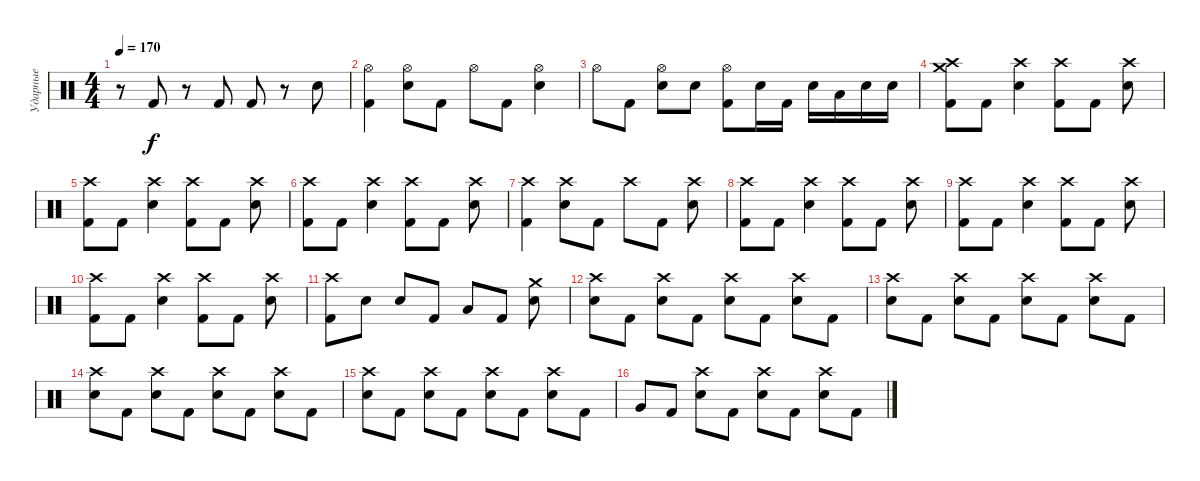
\track ("Ударные" "Ударные") {instrument percussion}
\staff {score}
\articulation defaults
\ts (4 4)
\tempo 170
\clef neutral
\ks c
r.8{dy f} "Kick (hit) 2".8 r.8 "Kick (hit) 2".8 "Kick (hit) 2".8 r.8 "Snare (hit) 2".8 |
("Hi-Hat (open)" "Kick (hit) 2").4 ("Hi-Hat (open)" "Snare (hit) 2").8 "Kick (hit) 2".8 "Hi-Hat (open)".8 "Kick (hit) 2".8 ("Hi-Hat (open)" "Snare (hit) 2").4 |
"Hi-Hat (open)".8 "Kick (hit) 2".8 ("Hi-Hat (open)" "Snare (hit) 2").8 "Snare (hit) 2".8 ("Hi-Hat (open)" "Kick (hit) 2").8 "Snare (hit) 2".16 "Kick (hit) 2".16 "Snare (hit) 2".16 "Low Tom (hit)".16 "Snare (hit) 2".16 "Snare (hit) 2".16 |
("Crash medium (hit)" "Crash high (hit)" "Kick (hit) 2").8 "Kick (hit) 2".8 ("Crash high (hit)" "Snare (hit) 2").4 ("Crash high (hit)" "Kick (hit) 2").8 "Kick (hit) 2".8 ("Crash high (hit)" "Snare (hit) 2").8 |
("Crash high (hit)" "Kick (hit) 2").8 "Kick (hit) 2".8 ("Crash high (hit)" "Snare (hit) 2").4 ("Crash high (hit)" "Kick (hit) 2").8 "Kick (hit) 2".8 ("Crash high (hit)" "Snare (hit) 2").8 |
("Crash high (hit)" "Kick (hit) 2").8 "Kick (hit) 2".8 ("Crash high (hit)" "Snare (hit) 2").4 ("Crash high (hit)" "Kick (hit) 2").8 "Kick (hit) 2".8 ("Crash high (hit)" "Snare (hit) 2").8 |
("Crash high (hit)" "Kick (hit) 2").4 ("Crash high (hit)" "Snare (hit) 2").8 "Kick (hit) 2".8 "Crash high (hit)".8 "Kick (hit) 2".8 ("Crash high (hit)" "Snare (hit) 2").8 |
("Crash high (hit)" "Kick (hit) 2").8 "Kick (hit) 2".8 ("Crash high (hit)" "Snare (hit) 2").4 ("Crash high (hit)" "Kick (hit) 2").8 "Kick (hit) 2".8 ("Crash high (hit)" "Snare (hit) 2").8 |
("Crash high (hit)" "Kick (hit) 2").8 "Kick (hit) 2".8 ("Crash high (hit)" "Snare (hit) 2").4 ("Crash high (hit)" "Kick (hit) 2").8 "Kick (hit) 2".8 ("Crash high (hit)" "Snare (hit) 2").8 |
("Crash high (hit)" "Kick (hit) 2").8 "Kick (hit) 2".8 ("Crash high (hit)" "Snare (hit) 2").4 ("Crash high (hit)" "Kick (hit) 2").8 "Kick (hit) 2".8 ("Crash high (hit)" "Snare (hit) 2").8 |
("Crash high (hit)" "Kick (hit) 2").8 "Snare (hit) 2".8 "Snare (hit) 2".8 "Kick (hit) 2".8 "Low Tom (hit)".8 "Kick (hit) 2".8 ("Crash medium (hit)" "Snare (hit) 2").8 |
("Crash high (hit)" "Snare (hit) 2").8 "Kick (hit) 2".8 ("Crash high (hit)" "Snare (hit) 2").8 "Kick (hit) 2".8 ("Crash high (hit)" "Snare (hit) 2").8 "Kick (hit) 2".8 ("Crash high (hit)" "Snare (hit) 2").8 "Kick (hit) 2".8 |
("Crash high (hit)" "Snare (hit) 2").8 "Kick (hit) 2".8 ("Crash high (hit)" "Snare (hit) 2").8 "Kick (hit) 2".8 ("Crash high (hit)" "Snare (hit) 2").8 "Kick (hit) 2".8 ("Crash high (hit)" "Snare (hit) 2").8 "Kick (hit) 2".8 |
("Crash high (hit)" "Snare (hit) 2").8 "Kick (hit) 2".8 ("Crash high (hit)" "Snare (hit) 2").8 "Kick (hit) 2".8 ("Crash high (hit)" "Snare (hit) 2").8 "Kick (hit) 2".8 ("Crash high (hit)" "Snare (hit) 2").8 "Kick (hit) 2".8 |
("Crash high (hit)" "Snare (hit) 2").8 "Kick (hit) 2".8 ("Crash high (hit)" "Snare (hit) 2").8 "Kick (hit) 2".8 ("Crash high (hit)" "Snare (hit) 2").8 "Kick (hit) 2".8 ("Crash high (hit)" "Snare (hit) 2").8 "Kick (hit) 2".8 |
"Very Low Tom (hit)".8 "Kick (hit) 2".8 ("Crash high (hit)" "Snare (hit) 2").8 "Kick (hit) 2".8 ("Crash high (hit)" "Snare (hit) 2").8 "Kick (hit) 2".8 ("Crash high (hit)" "Snare (hit) 2").8 "Kick (hit) 2".8
